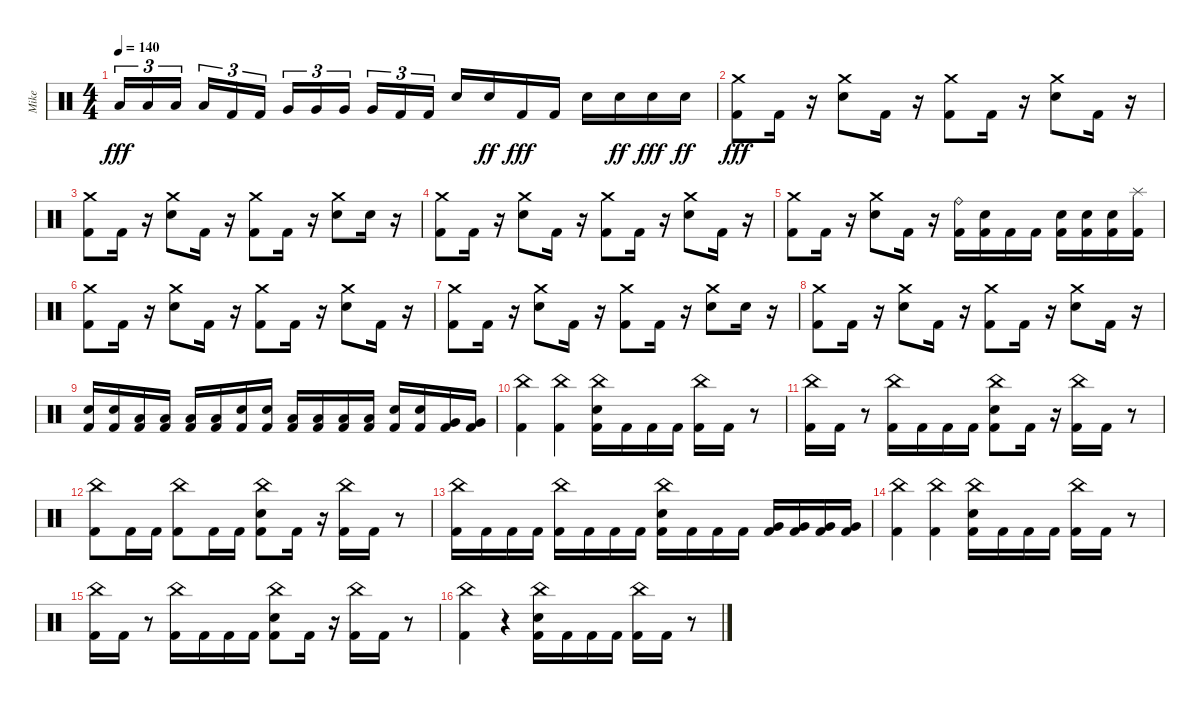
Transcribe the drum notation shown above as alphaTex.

\track ("Mike" "Mike") {instrument percussion}
\staff {score}
\articulation defaults
\ts (4 4)
\tempo 140
\clef neutral
\ks c "Low Tom (hit)".16{tu (3 2) dy fff} "Low Tom (hit)".16{tu (3 2)} "Low Tom (hit)".16{tu (3 2) beam splitsecondary} "Low Tom (hit)".16{tu (3 2)} "Kick (hit) 2".16{tu (3 2)} "Kick (hit) 2".16{tu (3 2)} "Very Low Tom (hit)".16{tu (3 2)} "Very Low Tom (hit)".16{tu (3 2)} "Very Low Tom (hit)".16{tu (3 2) beam splitsecondary} "Very Low Tom (hit)".16{tu (3 2)} "Kick (hit) 2".16{tu (3 2)} "Kick (hit) 2".16{tu (3 2)} "Electric Snare (hit)".16 "Electric Snare (hit)".16{dy ff} "Kick (hit) 2".16{dy fff} "Kick (hit) 2".16 "Electric Snare (hit)".16 "Electric Snare (hit)".16{dy ff} "Electric Snare (hit)".16{dy fff} "Electric Snare (hit)".16{dy ff}
|
("Kick (hit) 2" "Crash medium (hit)").8{dy fff} "Kick (hit) 2".16 r.16 ("Electric Snare (hit)" "Crash medium (hit)").8 "Kick (hit) 2".16 r.16 ("Kick (hit) 2" "Crash medium (hit)").8 "Kick (hit) 2".16 r.16 ("Electric Snare (hit)" "Crash medium (hit)").8 "Kick (hit) 2".16 r.16 |
("Kick (hit) 2" "Crash medium (hit)").8 "Kick (hit) 2".16 r.16 ("Electric Snare (hit)" "Crash medium (hit)").8 "Kick (hit) 2".16 r.16 ("Kick (hit) 2" "Crash medium (hit)").8 "Kick (hit) 2".16 r.16 ("Electric Snare (hit)" "Crash medium (hit)").8 "Electric Snare (hit)".16 r.16 |
("Kick (hit) 2" "Crash medium (hit)").8 "Kick (hit) 2".16 r.16 ("Electric Snare (hit)" "Crash medium (hit)").8 "Kick (hit) 2".16 r.16 ("Kick (hit) 2" "Crash medium (hit)").8 "Kick (hit) 2".16 r.16 ("Electric Snare (hit)" "Crash medium (hit)").8 "Kick (hit) 2".16 r.16 |
("Kick (hit) 2" "Crash medium (hit)").8 "Kick (hit) 2".16 r.16 ("Electric Snare (hit)" "Crash medium (hit)").8 "Kick (hit) 2".16 r.16 ("Kick (hit) 2" "Ride (bell)").16 ("Kick (hit) 2" "Electric Snare (hit)").16 "Kick (hit) 2".16 "Kick (hit) 2".16 ("Kick (hit) 2" "Electric Snare (hit)").16 ("Kick (hit) 2" "Electric Snare (hit)").16 ("Kick (hit) 2" "Electric Snare (hit)").16 ("Kick (hit) 2" "Splash (hit)").16 |
("Kick (hit) 2" "Crash medium (hit)").8 "Kick (hit) 2".16 r.16 ("Electric Snare (hit)" "Crash medium (hit)").8 "Kick (hit) 2".16 r.16 ("Kick (hit) 2" "Crash medium (hit)").8 "Kick (hit) 2".16 r.16 ("Electric Snare (hit)" "Crash medium (hit)").8 "Kick (hit) 2".16 r.16 |
("Kick (hit) 2" "Crash medium (hit)").8 "Kick (hit) 2".16 r.16 ("Electric Snare (hit)" "Crash medium (hit)").8 "Kick (hit) 2".16 r.16 ("Kick (hit) 2" "Crash medium (hit)").8 "Kick (hit) 2".16 r.16 ("Electric Snare (hit)" "Crash medium (hit)").8 "Electric Snare (hit)".16 r.16 |
("Kick (hit) 2" "Crash medium (hit)").8 "Kick (hit) 2".16 r.16 ("Electric Snare (hit)" "Crash medium (hit)").8 "Kick (hit) 2".16 r.16 ("Kick (hit) 2" "Crash medium (hit)").8 "Kick (hit) 2".16 r.16 ("Electric Snare (hit)" "Crash medium (hit)").8 "Kick (hit) 2".16 r.16 |
("Kick (hit) 2" "Electric Snare (hit)").16 ("Kick (hit) 2" "Electric Snare (hit)").16 ("Kick (hit) 2" "Low Tom (hit)").16 ("Kick (hit) 2" "Low Tom (hit)").16 ("Kick (hit) 2" "Low Tom (hit)").16 ("Kick (hit) 2" "Low Tom (hit)").16 ("Kick (hit) 2" "Electric Snare (hit)").16 ("Kick (hit) 2" "Electric Snare (hit)").16 ("Kick (hit) 2" "Low Tom (hit)").16 ("Kick (hit) 2" "Low Tom (hit)").16 ("Kick (hit) 2" "Low Tom (hit)").16 ("Kick (hit) 2" "Low Tom (hit)").16 ("Kick (hit) 2" "Electric Snare (hit)").16 ("Kick (hit) 2" "Electric Snare (hit)").16 ("Kick (hit) 2" "Very Low Tom (hit)").16 ("Kick (hit) 2" "Very Low Tom (hit)").16 |
("Kick (hit) 2" "China (hit)").4 ("Kick (hit) 2" "China (hit)").4 ("Kick (hit) 2" "Electric Snare (hit)" "China (hit)").16 "Kick (hit) 2".16 "Kick (hit) 2".16 "Kick (hit) 2".16 ("Kick (hit) 2" "China (hit)").16 "Kick (hit) 2".16 r.8 |
("Kick (hit) 2" "China (hit)").16 "Kick (hit) 2".16 r.8 ("Kick (hit) 2" "China (hit)").16 "Kick (hit) 2".16 "Kick (hit) 2".16 "Kick (hit) 2".16 ("Kick (hit) 2" "Electric Snare (hit)" "China (hit)").8 "Kick (hit) 2".16 r.16 ("Kick (hit) 2" "China (hit)").16 "Kick (hit) 2".16 r.8 |
("Kick (hit) 2" "China (hit)").8 "Kick (hit) 2".16 "Kick (hit) 2".16 ("Kick (hit) 2" "China (hit)").8 "Kick (hit) 2".16 "Kick (hit) 2".16 ("Kick (hit) 2" "Electric Snare (hit)" "China (hit)").8 "Kick (hit) 2".16 r.16 ("Kick (hit) 2" "China (hit)").16 "Kick (hit) 2".16 r.8 |
("Kick (hit) 2" "China (hit)").16 "Kick (hit) 2".16 "Kick (hit) 2".16 "Kick (hit) 2".16 ("Kick (hit) 2" "China (hit)").16 "Kick (hit) 2".16 "Kick (hit) 2".16 "Kick (hit) 2".16 ("Kick (hit) 2" "Electric Snare (hit)" "China (hit)").16 "Kick (hit) 2".16 "Kick (hit) 2".16 "Kick (hit) 2".16 ("Kick (hit) 2" "Very Low Tom (hit)").16 ("Kick (hit) 2" "Very Low Tom (hit)").16 ("Kick (hit) 2" "Very Low Tom (hit)").16 ("Kick (hit) 2" "Very Low Tom (hit)").16 |
("Kick (hit) 2" "China (hit)").4 ("Kick (hit) 2" "China (hit)").4 ("Kick (hit) 2" "Electric Snare (hit)" "China (hit)").16 "Kick (hit) 2".16 "Kick (hit) 2".16 "Kick (hit) 2".16 ("Kick (hit) 2" "China (hit)").16 "Kick (hit) 2".16 r.8 |
("Kick (hit) 2" "China (hit)").16 "Kick (hit) 2".16 r.8 ("Kick (hit) 2" "China (hit)").16 "Kick (hit) 2".16 "Kick (hit) 2".16 "Kick (hit) 2".16 ("Kick (hit) 2" "Electric Snare (hit)" "China (hit)").8 "Kick (hit) 2".16 r.16 ("Kick (hit) 2" "China (hit)").16 "Kick (hit) 2".16 r.8 |
("Kick (hit) 2" "China (hit)").4 r.4 ("Kick (hit) 2" "Electric Snare (hit)" "China (hit)").16 "Kick (hit) 2".16 "Kick (hit) 2".16 "Kick (hit) 2".16 ("Kick (hit) 2" "China (hit)").16 "Kick (hit) 2".16 r.8
